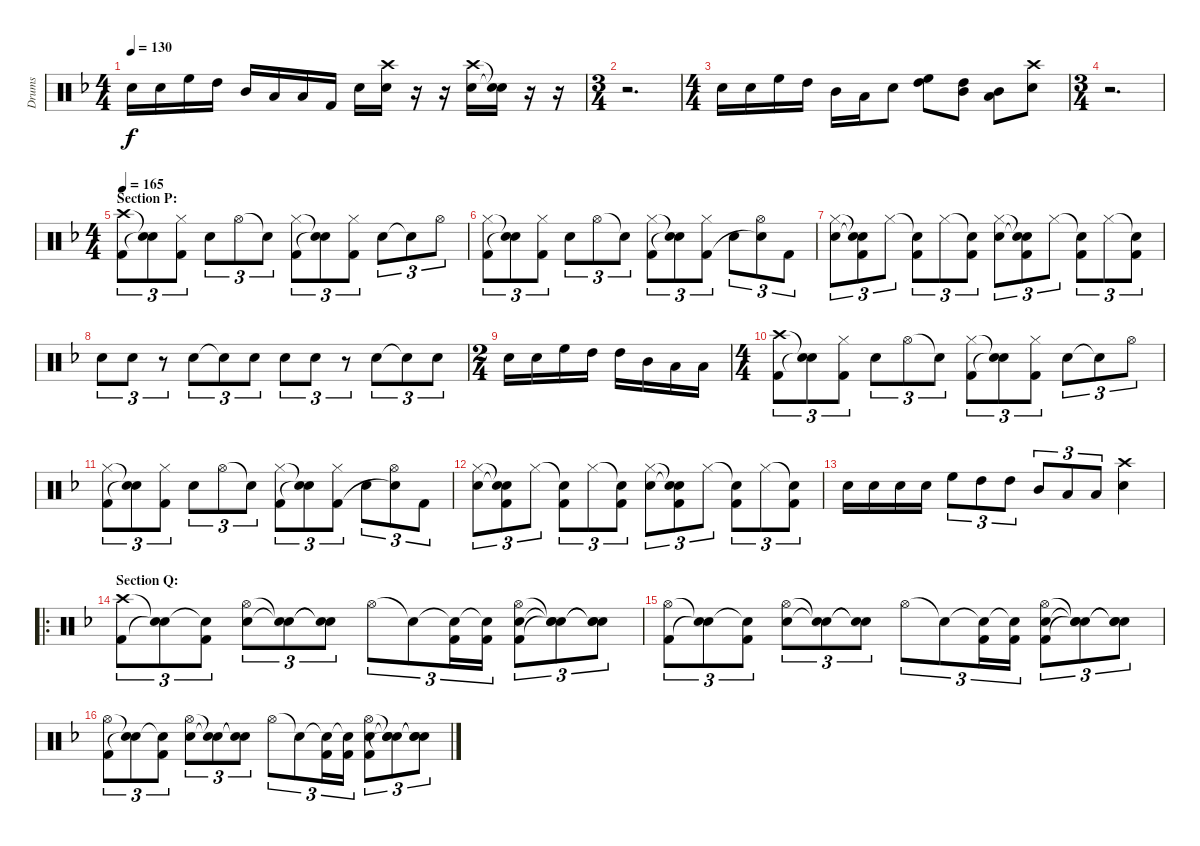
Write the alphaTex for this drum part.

\track ("Drums" "Drums") {instrument percussion}
\staff {score}
\articulation defaults
\ts (4 4)
\tempo 130
\clef neutral
\ks f "Snare (hit) 2".16{dy f} "Snare (hit) 2".16 "High Floor Tom (hit)".16 "High Tom (hit)".16 "Mid Tom (hit)".16 "Low Tom (hit)".16 "Low Tom (hit)".16 "Kick (hit) 2".16 "Snare (hit) 2".16
("Crash high (hit)" "Snare (hit) 2").16 r.16 r.16 ("Crash high (hit)" "Snare (hit) 2").16 ("Snare (hit)"{t} "Snare (hit) 2"{t}).16 r.16 r.16 |
\ts (3 4)
r.2{d} |
\ts (4 4)
"Snare (hit) 2".16 "Snare (hit) 2".16 "High Floor Tom (hit)".16 "High Tom (hit)".16 "Mid Tom (hit)".16 "Low Tom (hit)".16 "Snare (hit) 2".8 ("High Floor Tom (hit)" "High Tom (hit)").8 ("High Tom (hit)" "Mid Tom (hit)").8 ("Mid Tom (hit)" "Low Tom (hit)").8 ("Crash high (hit)" "Snare (hit) 2").8 |
\ts (3 4)
r.2{d} |
\ts (4 4)
\section ("" "Section P:")
\tempo 165
("Crash high (hit)" "Kick (hit) 2").8{tu (3 2)} ("Snare (hit)"{t} "Snare (hit)"{t}).8{tu (3 2)} ("Hi-Hat (closed)" "Kick (hit) 2").8{tu (3 2)} "Snare (hit) 2".8{tu (3 2)} "Hi-Hat (open)".8{tu (3 2)} "Snare (hit)"{t}.8{tu (3 2)} ("Hi-Hat (closed)" "Kick (hit) 2").8{tu (3 2)} ("Snare (hit)"{t} "Snare (hit)"{t}).8{tu (3 2)} ("Hi-Hat (closed)" "Kick (hit) 2").8{tu (3 2)} "Snare (hit) 2".8{tu (3 2)} "Snare (hit)"{t}.8{tu (3 2)} "Hi-Hat (open)".8{tu (3 2)} |
("Hi-Hat (closed)" "Kick (hit) 2").8{tu (3 2)} ("Snare (hit)"{t} "Snare (hit)"{t}).8{tu (3 2)} ("Hi-Hat (closed)" "Kick (hit) 2").8{tu (3 2)} "Snare (hit) 2".8{tu (3 2)} "Hi-Hat (open)".8{tu (3 2)} "Snare (hit)"{t}.8{tu (3 2)} ("Hi-Hat (closed)" "Kick (hit) 2").8{tu (3 2)} ("Snare (hit)"{t} "Snare (hit)"{t}).8{tu (3 2)} ("Hi-Hat (closed)" "Kick (hit) 2").8{tu (3 2)} "Snare (hit) 2".8{tu (3 2)} ("Hi-Hat (open)" "Snare (hit)"{t}).8{tu (3 2)} "Kick (hit) 2".8{tu (3 2)} |
("Hi-Hat (closed)" "Snare (hit) 2").8{tu (3 2)} ("Snare (hit)"{t} "Snare (hit)"{t} "Kick (hit) 2").8{tu (3 2)} "Hi-Hat (closed)".8{tu (3 2)} ("Snare (hit)"{t} "Kick (hit) 2").8{tu (3 2)} "Hi-Hat (closed)".8{tu (3 2)} ("Snare (hit)"{t} "Kick (hit) 2").8{tu (3 2)} ("Hi-Hat (closed)" "Snare (hit) 2").8{tu (3 2)} ("Snare (hit)"{t} "Snare (hit)"{t} "Kick (hit) 2").8{tu (3 2)} "Hi-Hat (closed)".8{tu (3 2)} ("Snare (hit)"{t} "Kick (hit) 2").8{tu (3 2)} "Hi-Hat (closed)".8{tu (3 2)} ("Snare (hit)"{t} "Kick (hit) 2").8{tu (3 2)} |
"Snare (hit) 2".8{tu (3 2)} "Snare (hit) 2".8{tu (3 2)} r.8{tu (3 2)} "Snare (hit) 2".8{tu (3 2)} "Snare (hit)"{t}.8{tu (3 2)} "Snare (hit) 2".8{tu (3 2)} "Snare (hit) 2".8{tu (3 2)} "Snare (hit) 2".8{tu (3 2)} r.8{tu (3 2)} "Snare (hit) 2".8{tu (3 2)} "Snare (hit)"{t}.8{tu (3 2)} "Snare (hit) 2".8{tu (3 2)} |
\ts (2 4)
"Snare (hit) 2".16 "Snare (hit) 2".16 "High Floor Tom (hit)".16 "High Tom (hit)".16 "High Tom (hit)".16 "Mid Tom (hit)".16 "Low Tom (hit)".16 "Low Tom (hit)".16 |
\ts (4 4)
("Crash high (hit)" "Kick (hit) 2").8{tu (3 2)} ("Snare (hit)"{t} "Snare (hit)"{t}).8{tu (3 2)} ("Hi-Hat (closed)" "Kick (hit) 2").8{tu (3 2)} "Snare (hit) 2".8{tu (3 2)} "Hi-Hat (open)".8{tu (3 2)} "Snare (hit)"{t}.8{tu (3 2)} ("Hi-Hat (closed)" "Kick (hit) 2").8{tu (3 2)} ("Snare (hit)"{t} "Snare (hit)"{t}).8{tu (3 2)} ("Hi-Hat (closed)" "Kick (hit) 2").8{tu (3 2)} "Snare (hit) 2".8{tu (3 2)} "Snare (hit)"{t}.8{tu (3 2)} "Hi-Hat (open)".8{tu (3 2)} |
("Hi-Hat (closed)" "Kick (hit) 2").8{tu (3 2)} ("Snare (hit)"{t} "Snare (hit)"{t}).8{tu (3 2)} ("Hi-Hat (closed)" "Kick (hit) 2").8{tu (3 2)} "Snare (hit) 2".8{tu (3 2)} "Hi-Hat (open)".8{tu (3 2)} "Snare (hit)"{t}.8{tu (3 2)} ("Hi-Hat (closed)" "Kick (hit) 2").8{tu (3 2)} ("Snare (hit)"{t} "Snare (hit)"{t}).8{tu (3 2)} ("Hi-Hat (closed)" "Kick (hit) 2").8{tu (3 2)} "Snare (hit) 2".8{tu (3 2)} ("Hi-Hat (open)" "Snare (hit)"{t}).8{tu (3 2)} "Kick (hit) 2".8{tu (3 2)} |
("Hi-Hat (closed)" "Snare (hit) 2").8{tu (3 2)} ("Snare (hit)"{t} "Snare (hit)"{t} "Kick (hit) 2").8{tu (3 2)} "Hi-Hat (closed)".8{tu (3 2)} ("Snare (hit)"{t} "Kick (hit) 2").8{tu (3 2)} "Hi-Hat (closed)".8{tu (3 2)} ("Snare (hit)"{t} "Kick (hit) 2").8{tu (3 2)} ("Hi-Hat (closed)" "Snare (hit) 2").8{tu (3 2)} ("Snare (hit)"{t} "Snare (hit)"{t} "Kick (hit) 2").8{tu (3 2)} "Hi-Hat (closed)".8{tu (3 2)} ("Snare (hit)"{t} "Kick (hit) 2").8{tu (3 2)} "Hi-Hat (closed)".8{tu (3 2)} ("Snare (hit)"{t} "Kick (hit) 2").8{tu (3 2)} |
"Snare (hit) 2".16 "Snare (hit) 2".16 "Snare (hit) 2".16 "Snare (hit) 2".16 "High Floor Tom (hit)".8{tu (3 2)} "High Tom (hit)".8{tu (3 2)} "High Tom (hit)".8{tu (3 2)} "Mid Tom (hit)".8{tu (3 2)} "Low Tom (hit)".8{tu (3 2)} "Low Tom (hit)".8{tu (3 2)} ("Crash high (hit)" "Snare (hit) 2").4 |
\ro
\section ("" "Section Q:")
("Crash high (hit)" "Kick (hit) 2").8{tu (3 2)} ("Snare (hit)"{t} "Snare (hit)"{t}).8{tu (3 2)} ("Snare (hit)"{t} "Kick (hit) 2").8{tu (3 2)} ("Hi-Hat (open)" "Snare (hit) 2").8{tu (3 2)} ("Snare (hit)"{t} "Snare (hit)"{t}).8{tu (3 2)} ("Snare (hit)"{t} "Snare (hit)"{t}).8{tu (3 2)} "Hi-Hat (open)".8{tu (3 2)} "Snare (hit)"{t}.8{tu (3 2)} ("Snare (hit)"{t} "Kick (hit) 2").16{tu (3 2)} ("Snare (hit)"{t} "Kick (hit) 2").16{tu (3 2)} ("Hi-Hat (open)" "Snare (hit) 2" "Kick (hit) 2").8{tu (3 2)} ("Snare (hit)"{t} "Snare (hit)"{t} "Snare (hit)"{t}).8{tu (3 2)} ("Snare (hit)"{t} "Snare (hit) 2" "Snare (hit)"{t}).8{tu (3 2)} |
("Hi-Hat (open)" "Kick (hit) 2").8{tu (3 2)} ("Snare (hit)"{t} "Snare (hit)"{t}).8{tu (3 2)} ("Snare (hit)"{t} "Kick (hit) 2").8{tu (3 2)} ("Hi-Hat (open)" "Snare (hit) 2").8{tu (3 2)} ("Snare (hit)"{t} "Snare (hit)"{t}).8{tu (3 2)} ("Snare (hit)"{t} "Snare (hit)"{t}).8{tu (3 2)} "Hi-Hat (open)".8{tu (3 2)} "Snare (hit)"{t}.8{tu (3 2)} ("Snare (hit)"{t} "Kick (hit) 2").16{tu (3 2)} ("Snare (hit)"{t} "Kick (hit) 2").16{tu (3 2)} ("Hi-Hat (open)" "Snare (hit) 2" "Kick (hit) 2").8{tu (3 2)} ("Snare (hit)"{t} "Snare (hit)"{t} "Snare (hit)"{t}).8{tu (3 2)} ("Snare (hit)"{t} "Snare (hit) 2" "Snare (hit)"{t}).8{tu (3 2)} |
("Hi-Hat (open)" "Kick (hit) 2").8{tu (3 2)} ("Snare (hit)"{t} "Snare (hit)"{t}).8{tu (3 2)} ("Snare (hit)"{t} "Kick (hit) 2").8{tu (3 2)} ("Hi-Hat (open)" "Snare (hit) 2").8{tu (3 2)} ("Snare (hit)"{t} "Snare (hit)"{t}).8{tu (3 2)} ("Snare (hit)"{t} "Snare (hit)"{t}).8{tu (3 2)} "Hi-Hat (open)".8{tu (3 2)} "Snare (hit)"{t}.8{tu (3 2)} ("Snare (hit)"{t} "Kick (hit) 2").16{tu (3 2)} ("Snare (hit)"{t} "Kick (hit) 2").16{tu (3 2)} ("Hi-Hat (open)" "Snare (hit) 2" "Kick (hit) 2").8{tu (3 2)} ("Snare (hit)"{t} "Snare (hit)"{t} "Snare (hit)"{t}).8{tu (3 2)} ("Snare (hit)"{t} "Snare (hit) 2" "Snare (hit)"{t}).8{tu (3 2)}
